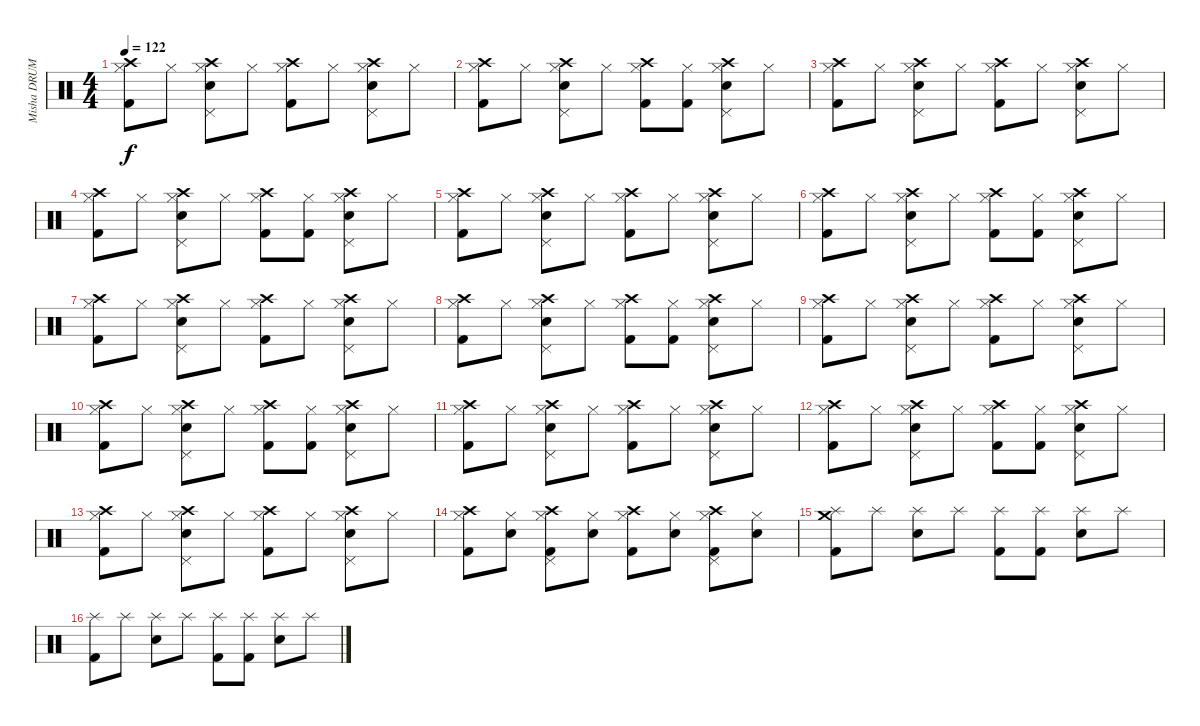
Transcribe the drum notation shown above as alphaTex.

\track ("Misha DRUMS" "Misha DRUM") {instrument percussion}
\staff {score}
\articulation defaults
\ts (4 4)
\tempo 122
\clef neutral
\ks c
("Hi-Hat (closed)" "Crash high (hit)" "Kick (hit) 2").8{dy f} "Hi-Hat (closed)".8 ("Hi-Hat (closed)" "Crash high (hit)" "Pedal Hi-Hat (hit)" "Snare (hit) 2").8 "Hi-Hat (closed)".8 ("Hi-Hat (closed)" "Crash high (hit)" "Kick (hit) 2").8 "Hi-Hat (closed)".8 ("Hi-Hat (closed)" "Crash high (hit)" "Pedal Hi-Hat (hit)" "Snare (hit) 2").8 "Hi-Hat (closed)".8 |
("Hi-Hat (closed)" "Crash high (hit)" "Kick (hit) 2").8 "Hi-Hat (closed)".8 ("Hi-Hat (closed)" "Crash high (hit)" "Pedal Hi-Hat (hit)" "Snare (hit) 2").8 "Hi-Hat (closed)".8 ("Hi-Hat (closed)" "Crash high (hit)" "Kick (hit) 2").8 ("Hi-Hat (closed)" "Kick (hit) 2").8 ("Hi-Hat (closed)" "Crash high (hit)" "Pedal Hi-Hat (hit)" "Snare (hit) 2").8 "Hi-Hat (closed)".8 |
("Hi-Hat (closed)" "Crash high (hit)" "Kick (hit) 2").8 "Hi-Hat (closed)".8 ("Hi-Hat (closed)" "Crash high (hit)" "Pedal Hi-Hat (hit)" "Snare (hit) 2").8 "Hi-Hat (closed)".8 ("Hi-Hat (closed)" "Crash high (hit)" "Kick (hit) 2").8 "Hi-Hat (closed)".8 ("Hi-Hat (closed)" "Crash high (hit)" "Pedal Hi-Hat (hit)" "Snare (hit) 2").8 "Hi-Hat (closed)".8 |
("Hi-Hat (closed)" "Crash high (hit)" "Kick (hit) 2").8 "Hi-Hat (closed)".8 ("Hi-Hat (closed)" "Crash high (hit)" "Pedal Hi-Hat (hit)" "Snare (hit) 2").8 "Hi-Hat (closed)".8 ("Hi-Hat (closed)" "Crash high (hit)" "Kick (hit) 2").8 ("Hi-Hat (closed)" "Kick (hit) 2").8 ("Hi-Hat (closed)" "Crash high (hit)" "Pedal Hi-Hat (hit)" "Snare (hit) 2").8 "Hi-Hat (closed)".8 |
("Hi-Hat (closed)" "Crash high (hit)" "Kick (hit) 2").8 "Hi-Hat (closed)".8 ("Hi-Hat (closed)" "Crash high (hit)" "Pedal Hi-Hat (hit)" "Snare (hit) 2").8 "Hi-Hat (closed)".8 ("Hi-Hat (closed)" "Crash high (hit)" "Kick (hit) 2").8 "Hi-Hat (closed)".8 ("Hi-Hat (closed)" "Crash high (hit)" "Pedal Hi-Hat (hit)" "Snare (hit) 2").8 "Hi-Hat (closed)".8 |
("Hi-Hat (closed)" "Crash high (hit)" "Kick (hit) 2").8 "Hi-Hat (closed)".8 ("Hi-Hat (closed)" "Crash high (hit)" "Pedal Hi-Hat (hit)" "Snare (hit) 2").8 "Hi-Hat (closed)".8 ("Hi-Hat (closed)" "Crash high (hit)" "Kick (hit) 2").8 ("Hi-Hat (closed)" "Kick (hit) 2").8 ("Hi-Hat (closed)" "Crash high (hit)" "Pedal Hi-Hat (hit)" "Snare (hit) 2").8 "Hi-Hat (closed)".8 |
("Hi-Hat (closed)" "Crash high (hit)" "Kick (hit) 2").8 "Hi-Hat (closed)".8 ("Hi-Hat (closed)" "Crash high (hit)" "Pedal Hi-Hat (hit)" "Snare (hit) 2").8 "Hi-Hat (closed)".8 ("Hi-Hat (closed)" "Crash high (hit)" "Kick (hit) 2").8 "Hi-Hat (closed)".8 ("Hi-Hat (closed)" "Crash high (hit)" "Pedal Hi-Hat (hit)" "Snare (hit) 2").8 "Hi-Hat (closed)".8 |
("Hi-Hat (closed)" "Crash high (hit)" "Kick (hit) 2").8 "Hi-Hat (closed)".8 ("Hi-Hat (closed)" "Crash high (hit)" "Pedal Hi-Hat (hit)" "Snare (hit) 2").8 "Hi-Hat (closed)".8 ("Hi-Hat (closed)" "Crash high (hit)" "Kick (hit) 2").8 ("Hi-Hat (closed)" "Kick (hit) 2").8 ("Hi-Hat (closed)" "Crash high (hit)" "Pedal Hi-Hat (hit)" "Snare (hit) 2").8 "Hi-Hat (closed)".8 |
("Hi-Hat (closed)" "Crash high (hit)" "Kick (hit) 2").8 "Hi-Hat (closed)".8 ("Hi-Hat (closed)" "Crash high (hit)" "Pedal Hi-Hat (hit)" "Snare (hit) 2").8 "Hi-Hat (closed)".8 ("Hi-Hat (closed)" "Crash high (hit)" "Kick (hit) 2").8 "Hi-Hat (closed)".8 ("Hi-Hat (closed)" "Crash high (hit)" "Pedal Hi-Hat (hit)" "Snare (hit) 2").8 "Hi-Hat (closed)".8 |
("Hi-Hat (closed)" "Crash high (hit)" "Kick (hit) 2").8 "Hi-Hat (closed)".8 ("Hi-Hat (closed)" "Crash high (hit)" "Pedal Hi-Hat (hit)" "Snare (hit) 2").8 "Hi-Hat (closed)".8 ("Hi-Hat (closed)" "Crash high (hit)" "Kick (hit) 2").8 ("Hi-Hat (closed)" "Kick (hit) 2").8 ("Hi-Hat (closed)" "Crash high (hit)" "Pedal Hi-Hat (hit)" "Snare (hit) 2").8 "Hi-Hat (closed)".8 |
("Hi-Hat (closed)" "Crash high (hit)" "Kick (hit) 2").8 "Hi-Hat (closed)".8 ("Hi-Hat (closed)" "Crash high (hit)" "Pedal Hi-Hat (hit)" "Snare (hit) 2").8 "Hi-Hat (closed)".8 ("Hi-Hat (closed)" "Crash high (hit)" "Kick (hit) 2").8 "Hi-Hat (closed)".8 ("Hi-Hat (closed)" "Crash high (hit)" "Pedal Hi-Hat (hit)" "Snare (hit) 2").8 "Hi-Hat (closed)".8 |
("Hi-Hat (closed)" "Crash high (hit)" "Kick (hit) 2").8 "Hi-Hat (closed)".8 ("Hi-Hat (closed)" "Crash high (hit)" "Pedal Hi-Hat (hit)" "Snare (hit) 2").8 "Hi-Hat (closed)".8 ("Hi-Hat (closed)" "Crash high (hit)" "Kick (hit) 2").8 ("Hi-Hat (closed)" "Kick (hit) 2").8 ("Hi-Hat (closed)" "Crash high (hit)" "Pedal Hi-Hat (hit)" "Snare (hit) 2").8 "Hi-Hat (closed)".8 |
("Hi-Hat (closed)" "Crash high (hit)" "Kick (hit) 2").8 "Hi-Hat (closed)".8 ("Hi-Hat (closed)" "Crash high (hit)" "Pedal Hi-Hat (hit)" "Snare (hit) 2").8 "Hi-Hat (closed)".8 ("Hi-Hat (closed)" "Crash high (hit)" "Kick (hit) 2").8 "Hi-Hat (closed)".8 ("Hi-Hat (closed)" "Crash high (hit)" "Pedal Hi-Hat (hit)" "Snare (hit) 2").8 "Hi-Hat (closed)".8 |
("Hi-Hat (closed)" "Crash high (hit)" "Kick (hit) 2").8 ("Hi-Hat (closed)" "Snare (hit) 2").8 ("Hi-Hat (closed)" "Crash high (hit)" "Pedal Hi-Hat (hit)" "Kick (hit) 2").8 ("Hi-Hat (closed)" "Snare (hit) 2").8 ("Hi-Hat (closed)" "Crash high (hit)" "Kick (hit) 2").8 ("Hi-Hat (closed)" "Snare (hit) 2").8 ("Hi-Hat (closed)" "Crash high (hit)" "Pedal Hi-Hat (hit)" "Kick (hit) 2").8 ("Hi-Hat (closed)" "Snare (hit) 2").8 |
("Splash (hit)" "Crash medium (hit)" "Kick (hit) 2").8 "Splash (hit)".8 ("Splash (hit)" "Snare (hit) 2").8 "Splash (hit)".8 ("Splash (hit)" "Kick (hit) 2").8 ("Splash (hit)" "Kick (hit) 2").8 ("Splash (hit)" "Snare (hit) 2").8 "Splash (hit)".8 |
("Splash (hit)" "Kick (hit) 2").8 "Splash (hit)".8 ("Splash (hit)" "Snare (hit) 2").8 "Splash (hit)".8 ("Splash (hit)" "Kick (hit) 2").8 ("Splash (hit)" "Kick (hit) 2").8 ("Splash (hit)" "Snare (hit) 2").8 "Splash (hit)".8
